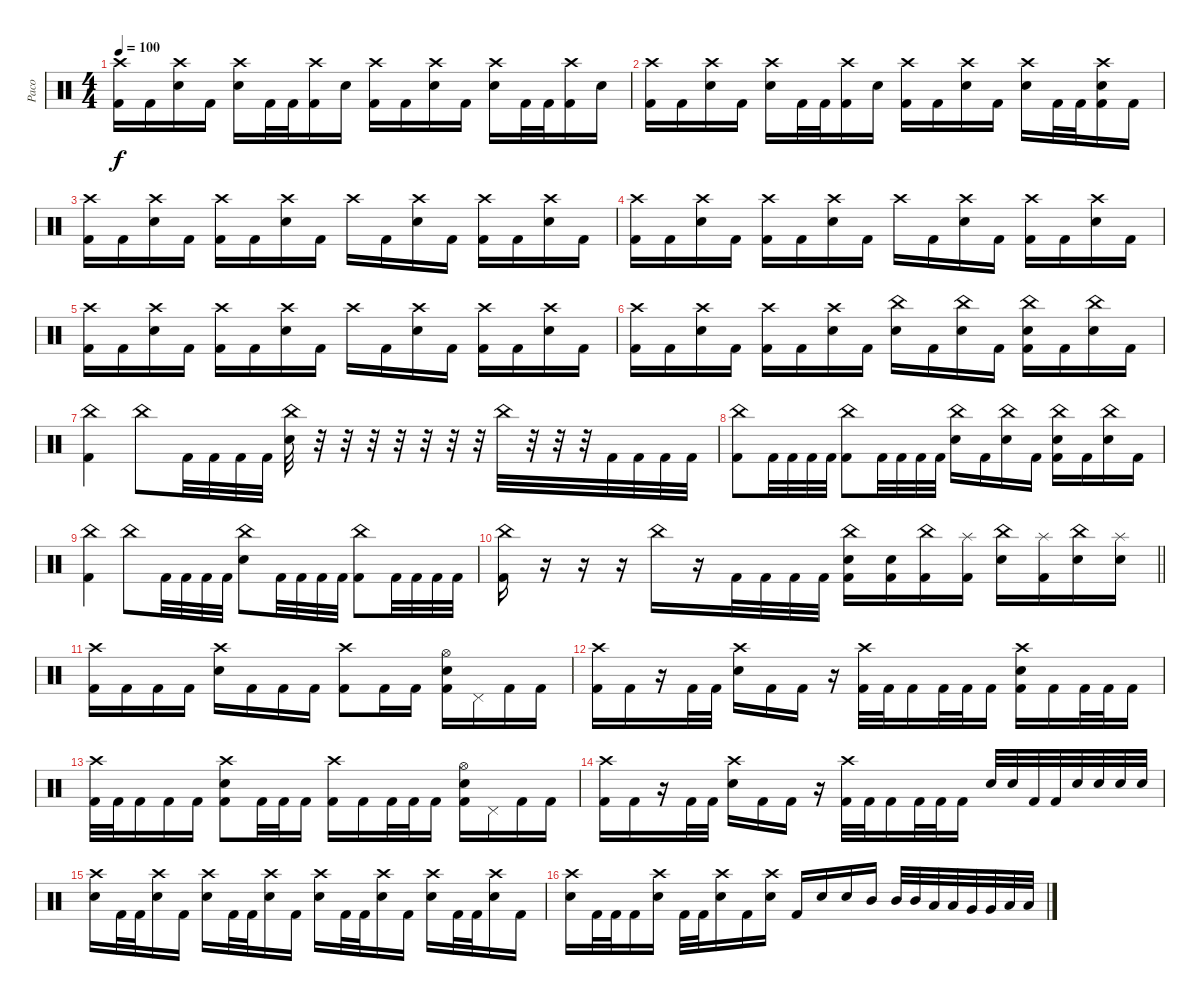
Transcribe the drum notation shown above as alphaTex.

\track ("Paco" "Paco") {instrument percussion}
\staff {score}
\articulation defaults
\ts (4 4)
\tempo 100
\clef neutral
\ks c
("Crash high (hit)" "Kick (hit) 2").16{dy f} "Kick (hit) 2".16 ("Crash high (hit)" "Electric Snare (hit)").16 "Kick (hit) 2".16 ("Crash high (hit)" "Electric Snare (hit)").16 "Kick (hit) 2".32 "Kick (hit) 2".32 ("Crash high (hit)" "Kick (hit) 2").16 "Electric Snare (hit)".16 ("Crash high (hit)" "Kick (hit) 2").16 "Kick (hit) 2".16 ("Crash high (hit)" "Electric Snare (hit)").16 "Kick (hit) 2".16 ("Crash high (hit)" "Electric Snare (hit)").16 "Kick (hit) 2".32 "Kick (hit) 2".32 ("Crash high (hit)" "Kick (hit) 2").16 "Electric Snare (hit)".16 |
("Crash high (hit)" "Kick (hit) 2").16 "Kick (hit) 2".16 ("Crash high (hit)" "Electric Snare (hit)").16 "Kick (hit) 2".16 ("Crash high (hit)" "Electric Snare (hit)").16 "Kick (hit) 2".32 "Kick (hit) 2".32 ("Crash high (hit)" "Kick (hit) 2").16 "Electric Snare (hit)".16 ("Crash high (hit)" "Kick (hit) 2").16 "Kick (hit) 2".16 ("Crash high (hit)" "Electric Snare (hit)").16 "Kick (hit) 2".16 ("Crash high (hit)" "Electric Snare (hit)").16 "Kick (hit) 2".32 "Kick (hit) 2".32 ("Crash high (hit)" "Electric Snare (hit)" "Kick (hit) 2").16 "Kick (hit) 2".16 |
("Crash high (hit)" "Kick (hit) 2").16 "Kick (hit) 2".16 ("Crash high (hit)" "Electric Snare (hit)").16 "Kick (hit) 2".16 ("Crash high (hit)" "Kick (hit) 2").16 "Kick (hit) 2".16 ("Crash high (hit)" "Electric Snare (hit)").16 "Kick (hit) 2".16 "Crash high (hit)".16 "Kick (hit) 2".16 ("Crash high (hit)" "Electric Snare (hit)").16 "Kick (hit) 2".16 ("Crash high (hit)" "Kick (hit) 2").16 "Kick (hit) 2".16 ("Crash high (hit)" "Electric Snare (hit)").16 "Kick (hit) 2".16 |
("Crash high (hit)" "Kick (hit) 2").16 "Kick (hit) 2".16 ("Crash high (hit)" "Electric Snare (hit)").16 "Kick (hit) 2".16 ("Crash high (hit)" "Kick (hit) 2").16 "Kick (hit) 2".16 ("Crash high (hit)" "Electric Snare (hit)").16 "Kick (hit) 2".16 "Crash high (hit)".16 "Kick (hit) 2".16 ("Crash high (hit)" "Electric Snare (hit)").16 "Kick (hit) 2".16 ("Crash high (hit)" "Kick (hit) 2").16 "Kick (hit) 2".16 ("Crash high (hit)" "Electric Snare (hit)").16 "Kick (hit) 2".16 |
("Crash high (hit)" "Kick (hit) 2").16 "Kick (hit) 2".16 ("Crash high (hit)" "Electric Snare (hit)").16 "Kick (hit) 2".16 ("Crash high (hit)" "Kick (hit) 2").16 "Kick (hit) 2".16 ("Crash high (hit)" "Electric Snare (hit)").16 "Kick (hit) 2".16 "Crash high (hit)".16 "Kick (hit) 2".16 ("Crash high (hit)" "Electric Snare (hit)").16 "Kick (hit) 2".16 ("Crash high (hit)" "Kick (hit) 2").16 "Kick (hit) 2".16 ("Crash high (hit)" "Electric Snare (hit)").16 "Kick (hit) 2".16 |
("Crash high (hit)" "Kick (hit) 2").16 "Kick (hit) 2".16 ("Crash high (hit)" "Electric Snare (hit)").16 "Kick (hit) 2".16 ("Crash high (hit)" "Kick (hit) 2").16 "Kick (hit) 2".16 ("Crash high (hit)" "Electric Snare (hit)").16 "Kick (hit) 2".16 ("China (hit)" "Electric Snare (hit)").16 "Kick (hit) 2".16 ("China (hit)" "Electric Snare (hit)").16 "Kick (hit) 2".16 ("China (hit)" "Electric Snare (hit)" "Kick (hit) 2").16 "Kick (hit) 2".16 ("China (hit)" "Electric Snare (hit)").16 "Kick (hit) 2".16 |
("China (hit)" "Kick (hit) 2").4 "China (hit)".8 "Kick (hit) 2".32 "Kick (hit) 2".32 "Kick (hit) 2".32 "Kick (hit) 2".32 ("China (hit)" "Electric Snare (hit)").32 r.32 r.32 r.32 r.32 r.32 r.32 r.32 "China (hit)".32 r.32 r.32 r.32 "Kick (hit) 2".32 "Kick (hit) 2".32 "Kick (hit) 2".32 "Kick (hit) 2".32 |
("China (hit)" "Kick (hit) 2").8 "Kick (hit) 2".32 "Kick (hit) 2".32 "Kick (hit) 2".32 "Kick (hit) 2".32 ("China (hit)" "Kick (hit) 2").8 "Kick (hit) 2".32 "Kick (hit) 2".32 "Kick (hit) 2".32 "Kick (hit) 2".32 ("China (hit)" "Electric Snare (hit)").16 "Kick (hit) 2".16 ("China (hit)" "Electric Snare (hit)").16 "Kick (hit) 2".16 ("China (hit)" "Electric Snare (hit)" "Kick (hit) 2").16 "Kick (hit) 2".16 ("China (hit)" "Electric Snare (hit)").16 "Kick (hit) 2".16 |
("China (hit)" "Kick (hit) 2").4 "China (hit)".8 "Kick (hit) 2".32 "Kick (hit) 2".32 "Kick (hit) 2".32 "Kick (hit) 2".32 ("China (hit)" "Electric Snare (hit)").8 "Kick (hit) 2".32 "Kick (hit) 2".32 "Kick (hit) 2".32 "Kick (hit) 2".32 ("China (hit)" "Kick (hit) 2").8 "Kick (hit) 2".32 "Kick (hit) 2".32 "Kick (hit) 2".32 "Kick (hit) 2".32 |
\barLineRight lightlight
("China (hit)" "Kick (hit) 2").16 r.16 r.16 r.16 "China (hit)".16 r.16 "Kick (hit) 2".32 "Kick (hit) 2".32 "Kick (hit) 2".32 "Kick (hit) 2".32 ("China (hit)" "Electric Snare (hit)" "Kick (hit) 2").16 ("Electric Snare (hit)" "Kick (hit) 2").16 ("China (hit)" "Kick (hit) 2").16 ("Splash (hit)" "Kick (hit) 2").16 ("China (hit)" "Electric Snare (hit)").16 ("Splash (hit)" "Kick (hit) 2").16 ("China (hit)" "Electric Snare (hit)").16 ("Splash (hit)" "Electric Snare (hit)").16 |
("Crash high (hit)" "Kick (hit) 2").16 "Kick (hit) 2".16 "Kick (hit) 2".16 "Kick (hit) 2".16 ("Crash high (hit)" "Electric Snare (hit)").16 "Kick (hit) 2".16 "Kick (hit) 2".16 "Kick (hit) 2".16 ("Crash high (hit)" "Kick (hit) 2").8 "Kick (hit) 2".16 "Kick (hit) 2".16 ("Hi-Hat (open)" "Electric Snare (hit)" "Kick (hit) 2").16 "Pedal Hi-Hat (hit)".16 "Kick (hit) 2".16 "Kick (hit) 2".16 |
("Crash high (hit)" "Kick (hit) 2").16 "Kick (hit) 2".16 r.16 "Kick (hit) 2".32 "Kick (hit) 2".32 ("Crash high (hit)" "Electric Snare (hit)").16 "Kick (hit) 2".16 "Kick (hit) 2".16 r.16 ("Crash high (hit)" "Kick (hit) 2").32 "Kick (hit) 2".32 "Kick (hit) 2".16 "Kick (hit) 2".32 "Kick (hit) 2".32 "Kick (hit) 2".16 ("Crash high (hit)" "Electric Snare (hit)" "Kick (hit) 2").16 "Kick (hit) 2".16 "Kick (hit) 2".32 "Kick (hit) 2".32 "Kick (hit) 2".16 |
("Crash high (hit)" "Kick (hit) 2").32 "Kick (hit) 2".32 "Kick (hit) 2".16 "Kick (hit) 2".16 "Kick (hit) 2".16 ("Crash high (hit)" "Electric Snare (hit)" "Kick (hit) 2").8 "Kick (hit) 2".32 "Kick (hit) 2".32 "Kick (hit) 2".16 ("Crash high (hit)" "Kick (hit) 2").16 "Kick (hit) 2".16 "Kick (hit) 2".32 "Kick (hit) 2".32 "Kick (hit) 2".16 ("Hi-Hat (open)" "Electric Snare (hit)" "Kick (hit) 2").16 "Pedal Hi-Hat (hit)".16 "Kick (hit) 2".16 "Kick (hit) 2".16 |
("Crash high (hit)" "Kick (hit) 2").16 "Kick (hit) 2".16 r.16 "Kick (hit) 2".32 "Kick (hit) 2".32 ("Crash high (hit)" "Electric Snare (hit)").16 "Kick (hit) 2".16 "Kick (hit) 2".16 r.16 ("Crash high (hit)" "Kick (hit) 2").32 "Kick (hit) 2".32 "Kick (hit) 2".16 "Kick (hit) 2".32 "Kick (hit) 2".32 "Kick (hit) 2".16 "Electric Snare (hit)".32 "Electric Snare (hit)".32 "Kick (hit) 2".32 "Kick (hit) 2".32 "Electric Snare (hit)".32 "Electric Snare (hit)".32 "Electric Snare (hit)".32 "Electric Snare (hit)".32 |
("Crash high (hit)" "Electric Snare (hit)").16 "Kick (hit) 2".32 "Kick (hit) 2".32 ("Crash high (hit)" "Electric Snare (hit)").16 "Kick (hit) 2".16 ("Crash high (hit)" "Electric Snare (hit)").16 "Kick (hit) 2".32 "Kick (hit) 2".32 ("Crash high (hit)" "Electric Snare (hit)").16 "Kick (hit) 2".16 ("Crash high (hit)" "Electric Snare (hit)").16 "Kick (hit) 2".32 "Kick (hit) 2".32 ("Crash high (hit)" "Electric Snare (hit)").16 "Kick (hit) 2".16 ("Crash high (hit)" "Electric Snare (hit)").16 "Kick (hit) 2".32 "Kick (hit) 2".32 ("Crash high (hit)" "Electric Snare (hit)").16 "Kick (hit) 2".16 |
("Crash high (hit)" "Electric Snare (hit)").16 "Kick (hit) 2".32 "Kick (hit) 2".32 "Kick (hit) 2".16 ("Crash high (hit)" "Electric Snare (hit)").16 "Kick (hit) 2".32 "Kick (hit) 2".32 ("Crash high (hit)" "Electric Snare (hit)").16 "Kick (hit) 2".16 ("Crash high (hit)" "Electric Snare (hit)").16 "Kick (hit) 2".16 "Electric Snare (hit)".16 "Electric Snare (hit)".16 "Mid Tom (hit)".16 "Mid Tom (hit)".32 "Mid Tom (hit)".32 "Low Tom (hit)".32 "Low Tom (hit)".32 "Very Low Tom (hit)".32 "Very Low Tom (hit)".32 "Low Floor Tom (hit)".32 "Low Floor Tom (hit)".32
